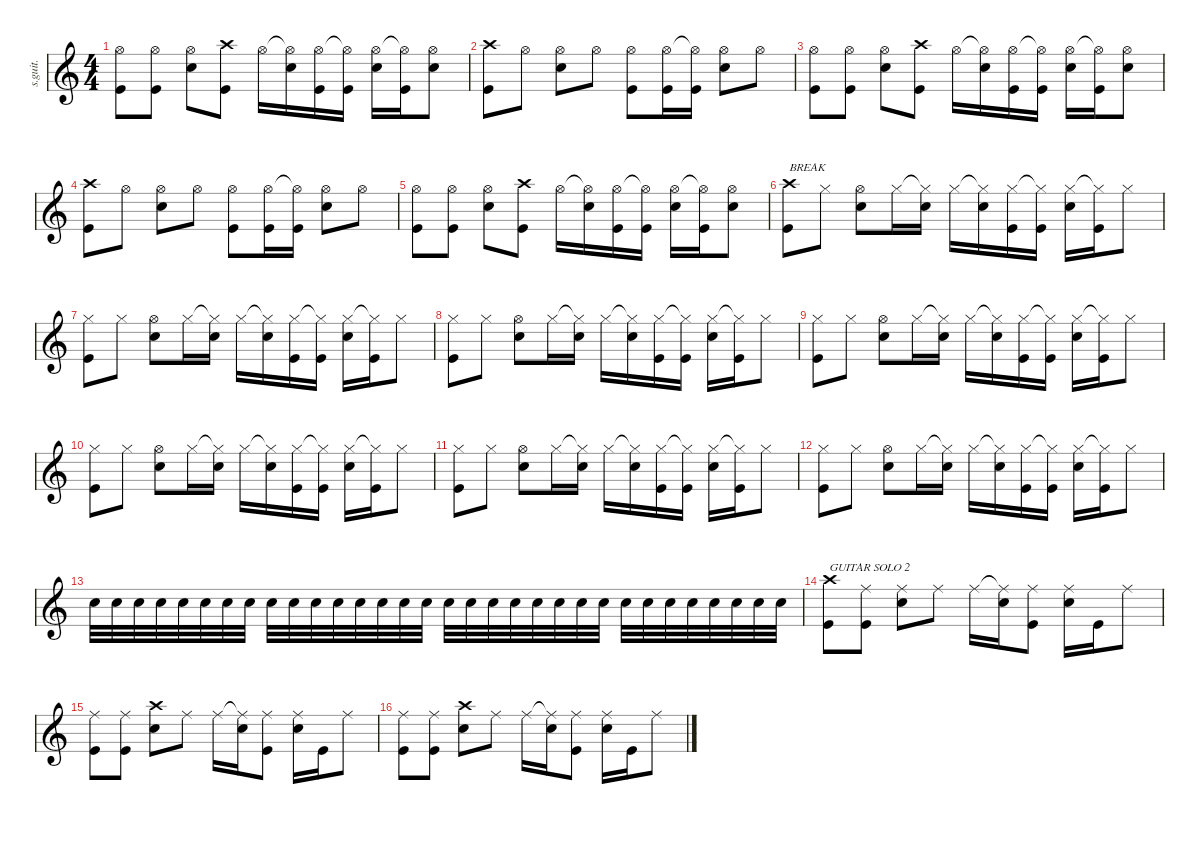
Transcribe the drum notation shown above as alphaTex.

\defaultSystemsLayout 4
\hideDynamics
\bracketExtendMode nobrackets
\track ("Phil Selway" "s.guit.") {instrument percussion}
\staff {score}
\articulation defaults
\ts (4 4)
\tempo (88 hide)
\clef g2
\ks c
("Hi-Hat (open)" "Kick (hit)").8{lyrics (0 "") lyrics (1 "") lyrics (2 "") lyrics (3 "") lyrics (4 "") dy f} ("Hi-Hat (open)" "Kick (hit)").8{lyrics (0 "") lyrics (1 "") lyrics (2 "") lyrics (3 "") lyrics (4 "")} ("Hi-Hat (open)" "Snare (hit) 2").8{lyrics (0 "") lyrics (1 "") lyrics (2 "") lyrics (3 "") lyrics (4 "")} ("Crash high (hit)" "Kick (hit)").8{lyrics (0 "") lyrics (1 "") lyrics (2 "") lyrics (3 "") lyrics (4 "")} "Hi-Hat (open)".16{lyrics (0 "") lyrics (1 "") lyrics (2 "") lyrics (3 "") lyrics (4 "")} ("Hi-Hat (open)"{t} "Snare (hit) 2").16{lyrics (0 "") lyrics (1 "") lyrics (2 "") lyrics (3 "") lyrics (4 "")} ("Hi-Hat (open)" "Kick (hit)").16{lyrics (0 "") lyrics (1 "") lyrics (2 "") lyrics (3 "") lyrics (4 "")} ("Hi-Hat (open)"{t} "Kick (hit)").16{lyrics (0 "") lyrics (1 "") lyrics (2 "") lyrics (3 "") lyrics (4 "")} ("Hi-Hat (open)" "Snare (hit) 2").16{lyrics (0 "") lyrics (1 "") lyrics (2 "") lyrics (3 "") lyrics (4 "")} ("Hi-Hat (open)"{t} "Kick (hit)").16{lyrics (0 "") lyrics (1 "") lyrics (2 "") lyrics (3 "") lyrics (4 "")} ("Hi-Hat (open)" "Snare (hit) 2").8{lyrics (0 "") lyrics (1 "") lyrics (2 "") lyrics (3 "") lyrics (4 "")} |
("Crash high (hit)" "Kick (hit)").8{lyrics (0 "") lyrics (1 "") lyrics (2 "") lyrics (3 "") lyrics (4 "")} "Hi-Hat (open)".8{lyrics (0 "") lyrics (1 "") lyrics (2 "") lyrics (3 "") lyrics (4 "")} ("Hi-Hat (open)" "Snare (hit) 2").8{lyrics (0 "") lyrics (1 "") lyrics (2 "") lyrics (3 "") lyrics (4 "")} "Hi-Hat (open)".8{lyrics (0 "") lyrics (1 "") lyrics (2 "") lyrics (3 "") lyrics (4 "")} ("Hi-Hat (open)" "Kick (hit)").8{lyrics (0 "") lyrics (1 "") lyrics (2 "") lyrics (3 "") lyrics (4 "")} ("Hi-Hat (open)" "Kick (hit)").16{lyrics (0 "") lyrics (1 "") lyrics (2 "") lyrics (3 "") lyrics (4 "")} ("Hi-Hat (open)"{t} "Kick (hit)").16{lyrics (0 "") lyrics (1 "") lyrics (2 "") lyrics (3 "") lyrics (4 "")} ("Hi-Hat (open)" "Snare (hit) 2").8{lyrics (0 "") lyrics (1 "") lyrics (2 "") lyrics (3 "") lyrics (4 "")} "Hi-Hat (open)".8{lyrics (0 "") lyrics (1 "") lyrics (2 "") lyrics (3 "") lyrics (4 "")} |
("Hi-Hat (open)" "Kick (hit)").8{lyrics (0 "") lyrics (1 "") lyrics (2 "") lyrics (3 "") lyrics (4 "")} ("Hi-Hat (open)" "Kick (hit)").8{lyrics (0 "") lyrics (1 "") lyrics (2 "") lyrics (3 "") lyrics (4 "")} ("Hi-Hat (open)" "Snare (hit) 2").8{lyrics (0 "") lyrics (1 "") lyrics (2 "") lyrics (3 "") lyrics (4 "")} ("Crash high (hit)" "Kick (hit)").8{lyrics (0 "") lyrics (1 "") lyrics (2 "") lyrics (3 "") lyrics (4 "")} "Hi-Hat (open)".16{lyrics (0 "") lyrics (1 "") lyrics (2 "") lyrics (3 "") lyrics (4 "")} ("Hi-Hat (open)"{t} "Snare (hit) 2").16{lyrics (0 "") lyrics (1 "") lyrics (2 "") lyrics (3 "") lyrics (4 "")} ("Hi-Hat (open)" "Kick (hit)").16{lyrics (0 "") lyrics (1 "") lyrics (2 "") lyrics (3 "") lyrics (4 "")} ("Hi-Hat (open)"{t} "Kick (hit)").16{lyrics (0 "") lyrics (1 "") lyrics (2 "") lyrics (3 "") lyrics (4 "")} ("Hi-Hat (open)" "Snare (hit) 2").16{lyrics (0 "") lyrics (1 "") lyrics (2 "") lyrics (3 "") lyrics (4 "")} ("Hi-Hat (open)"{t} "Kick (hit)").16{lyrics (0 "") lyrics (1 "") lyrics (2 "") lyrics (3 "") lyrics (4 "")} ("Hi-Hat (open)" "Snare (hit) 2").8{lyrics (0 "") lyrics (1 "") lyrics (2 "") lyrics (3 "") lyrics (4 "")} |
("Crash high (hit)" "Kick (hit)").8{lyrics (0 "") lyrics (1 "") lyrics (2 "") lyrics (3 "") lyrics (4 "")} "Hi-Hat (open)".8{lyrics (0 "") lyrics (1 "") lyrics (2 "") lyrics (3 "") lyrics (4 "")} ("Hi-Hat (open)" "Snare (hit) 2").8{lyrics (0 "") lyrics (1 "") lyrics (2 "") lyrics (3 "") lyrics (4 "")} "Hi-Hat (open)".8{lyrics (0 "") lyrics (1 "") lyrics (2 "") lyrics (3 "") lyrics (4 "")} ("Hi-Hat (open)" "Kick (hit)").8{lyrics (0 "") lyrics (1 "") lyrics (2 "") lyrics (3 "") lyrics (4 "")} ("Hi-Hat (open)" "Kick (hit)").16{lyrics (0 "") lyrics (1 "") lyrics (2 "") lyrics (3 "") lyrics (4 "")} ("Hi-Hat (open)"{t} "Kick (hit)").16{lyrics (0 "") lyrics (1 "") lyrics (2 "") lyrics (3 "") lyrics (4 "")} ("Hi-Hat (open)" "Snare (hit) 2").8{lyrics (0 "") lyrics (1 "") lyrics (2 "") lyrics (3 "") lyrics (4 "")} "Hi-Hat (open)".8{lyrics (0 "") lyrics (1 "") lyrics (2 "") lyrics (3 "") lyrics (4 "")} |
("Hi-Hat (open)" "Kick (hit)").8{lyrics (0 "") lyrics (1 "") lyrics (2 "") lyrics (3 "") lyrics (4 "")} ("Hi-Hat (open)" "Kick (hit)").8{lyrics (0 "") lyrics (1 "") lyrics (2 "") lyrics (3 "") lyrics (4 "")} ("Hi-Hat (open)" "Snare (hit) 2").8{lyrics (0 "") lyrics (1 "") lyrics (2 "") lyrics (3 "") lyrics (4 "")} ("Crash high (hit)" "Kick (hit)").8{lyrics (0 "") lyrics (1 "") lyrics (2 "") lyrics (3 "") lyrics (4 "")} "Hi-Hat (open)".16{lyrics (0 "") lyrics (1 "") lyrics (2 "") lyrics (3 "") lyrics (4 "")} ("Hi-Hat (open)"{t} "Snare (hit) 2").16{lyrics (0 "") lyrics (1 "") lyrics (2 "") lyrics (3 "") lyrics (4 "")} ("Hi-Hat (open)" "Kick (hit)").16{lyrics (0 "") lyrics (1 "") lyrics (2 "") lyrics (3 "") lyrics (4 "")} ("Hi-Hat (open)"{t} "Kick (hit)").16{lyrics (0 "") lyrics (1 "") lyrics (2 "") lyrics (3 "") lyrics (4 "")} ("Hi-Hat (open)" "Snare (hit) 2").16{lyrics (0 "") lyrics (1 "") lyrics (2 "") lyrics (3 "") lyrics (4 "")} ("Hi-Hat (open)"{t} "Kick (hit)").16{lyrics (0 "") lyrics (1 "") lyrics (2 "") lyrics (3 "") lyrics (4 "")} ("Hi-Hat (open)" "Snare (hit) 2").8{lyrics (0 "") lyrics (1 "") lyrics (2 "") lyrics (3 "") lyrics (4 "")} |
("Crash high (hit)" "Kick (hit)").8{txt "BREAK" lyrics (0 "") lyrics (1 "") lyrics (2 "") lyrics (3 "") lyrics (4 "")} "Hi-Hat (closed)".8{lyrics (0 "") lyrics (1 "") lyrics (2 "") lyrics (3 "") lyrics (4 "")} ("Hi-Hat (open)" "Snare (hit) 2").8{lyrics (0 "") lyrics (1 "") lyrics (2 "") lyrics (3 "") lyrics (4 "")} "Hi-Hat (closed)".16{lyrics (0 "") lyrics (1 "") lyrics (2 "") lyrics (3 "") lyrics (4 "")} ("Hi-Hat (closed)"{t} "Snare (hit) 2").16{lyrics (0 "") lyrics (1 "") lyrics (2 "") lyrics (3 "") lyrics (4 "")} "Hi-Hat (closed)".16{lyrics (0 "") lyrics (1 "") lyrics (2 "") lyrics (3 "") lyrics (4 "")} ("Hi-Hat (closed)"{t} "Snare (hit) 2").16{lyrics (0 "") lyrics (1 "") lyrics (2 "") lyrics (3 "") lyrics (4 "")} ("Hi-Hat (closed)" "Kick (hit)").16{lyrics (0 "") lyrics (1 "") lyrics (2 "") lyrics (3 "") lyrics (4 "")} ("Hi-Hat (closed)"{t} "Kick (hit)").16{lyrics (0 "") lyrics (1 "") lyrics (2 "") lyrics (3 "") lyrics (4 "")} ("Hi-Hat (closed)" "Snare (hit) 2").16{lyrics (0 "") lyrics (1 "") lyrics (2 "") lyrics (3 "") lyrics (4 "")} ("Hi-Hat (closed)"{t} "Kick (hit)").16{lyrics (0 "") lyrics (1 "") lyrics (2 "") lyrics (3 "") lyrics (4 "")} "Hi-Hat (closed)".8{lyrics (0 "") lyrics (1 "") lyrics (2 "") lyrics (3 "") lyrics (4 "")} |
("Hi-Hat (closed)" "Kick (hit)").8{lyrics (0 "") lyrics (1 "") lyrics (2 "") lyrics (3 "") lyrics (4 "")} "Hi-Hat (closed)".8{lyrics (0 "") lyrics (1 "") lyrics (2 "") lyrics (3 "") lyrics (4 "")} ("Hi-Hat (open)" "Snare (hit) 2").8{lyrics (0 "") lyrics (1 "") lyrics (2 "") lyrics (3 "") lyrics (4 "")} "Hi-Hat (closed)".16{lyrics (0 "") lyrics (1 "") lyrics (2 "") lyrics (3 "") lyrics (4 "")} ("Hi-Hat (closed)"{t} "Snare (hit) 2").16{lyrics (0 "") lyrics (1 "") lyrics (2 "") lyrics (3 "") lyrics (4 "")} "Hi-Hat (closed)".16{lyrics (0 "") lyrics (1 "") lyrics (2 "") lyrics (3 "") lyrics (4 "")} ("Hi-Hat (closed)"{t} "Snare (hit) 2").16{lyrics (0 "") lyrics (1 "") lyrics (2 "") lyrics (3 "") lyrics (4 "")} ("Hi-Hat (closed)" "Kick (hit)").16{lyrics (0 "") lyrics (1 "") lyrics (2 "") lyrics (3 "") lyrics (4 "")} ("Hi-Hat (closed)"{t} "Kick (hit)").16{lyrics (0 "") lyrics (1 "") lyrics (2 "") lyrics (3 "") lyrics (4 "")} ("Hi-Hat (closed)" "Snare (hit) 2").16{lyrics (0 "") lyrics (1 "") lyrics (2 "") lyrics (3 "") lyrics (4 "")} ("Hi-Hat (closed)"{t} "Kick (hit)").16{lyrics (0 "") lyrics (1 "") lyrics (2 "") lyrics (3 "") lyrics (4 "")} "Hi-Hat (closed)".8{lyrics (0 "") lyrics (1 "") lyrics (2 "") lyrics (3 "") lyrics (4 "")} |
("Hi-Hat (closed)" "Kick (hit)").8{lyrics (0 "") lyrics (1 "") lyrics (2 "") lyrics (3 "") lyrics (4 "")} "Hi-Hat (closed)".8{lyrics (0 "") lyrics (1 "") lyrics (2 "") lyrics (3 "") lyrics (4 "")} ("Hi-Hat (open)" "Snare (hit) 2").8{lyrics (0 "") lyrics (1 "") lyrics (2 "") lyrics (3 "") lyrics (4 "")} "Hi-Hat (closed)".16{lyrics (0 "") lyrics (1 "") lyrics (2 "") lyrics (3 "") lyrics (4 "")} ("Hi-Hat (closed)"{t} "Snare (hit) 2").16{lyrics (0 "") lyrics (1 "") lyrics (2 "") lyrics (3 "") lyrics (4 "")} "Hi-Hat (closed)".16{lyrics (0 "") lyrics (1 "") lyrics (2 "") lyrics (3 "") lyrics (4 "")} ("Hi-Hat (closed)"{t} "Snare (hit) 2").16{lyrics (0 "") lyrics (1 "") lyrics (2 "") lyrics (3 "") lyrics (4 "")} ("Hi-Hat (closed)" "Kick (hit)").16{lyrics (0 "") lyrics (1 "") lyrics (2 "") lyrics (3 "") lyrics (4 "")} ("Hi-Hat (closed)"{t} "Kick (hit)").16{lyrics (0 "") lyrics (1 "") lyrics (2 "") lyrics (3 "") lyrics (4 "")} ("Hi-Hat (closed)" "Snare (hit) 2").16{lyrics (0 "") lyrics (1 "") lyrics (2 "") lyrics (3 "") lyrics (4 "")} ("Hi-Hat (closed)"{t} "Kick (hit)").16{lyrics (0 "") lyrics (1 "") lyrics (2 "") lyrics (3 "") lyrics (4 "")} "Hi-Hat (closed)".8{lyrics (0 "") lyrics (1 "") lyrics (2 "") lyrics (3 "") lyrics (4 "")} |
("Hi-Hat (closed)" "Kick (hit)").8{lyrics (0 "") lyrics (1 "") lyrics (2 "") lyrics (3 "") lyrics (4 "")} "Hi-Hat (closed)".8{lyrics (0 "") lyrics (1 "") lyrics (2 "") lyrics (3 "") lyrics (4 "")} ("Hi-Hat (open)" "Snare (hit) 2").8{lyrics (0 "") lyrics (1 "") lyrics (2 "") lyrics (3 "") lyrics (4 "")} "Hi-Hat (closed)".16{lyrics (0 "") lyrics (1 "") lyrics (2 "") lyrics (3 "") lyrics (4 "")} ("Hi-Hat (closed)"{t} "Snare (hit) 2").16{lyrics (0 "") lyrics (1 "") lyrics (2 "") lyrics (3 "") lyrics (4 "")} "Hi-Hat (closed)".16{lyrics (0 "") lyrics (1 "") lyrics (2 "") lyrics (3 "") lyrics (4 "")} ("Hi-Hat (closed)"{t} "Snare (hit) 2").16{lyrics (0 "") lyrics (1 "") lyrics (2 "") lyrics (3 "") lyrics (4 "")} ("Hi-Hat (closed)" "Kick (hit)").16{lyrics (0 "") lyrics (1 "") lyrics (2 "") lyrics (3 "") lyrics (4 "")} ("Hi-Hat (closed)"{t} "Kick (hit)").16{lyrics (0 "") lyrics (1 "") lyrics (2 "") lyrics (3 "") lyrics (4 "")} ("Hi-Hat (closed)" "Snare (hit) 2").16{lyrics (0 "") lyrics (1 "") lyrics (2 "") lyrics (3 "") lyrics (4 "")} ("Hi-Hat (closed)"{t} "Kick (hit)").16{lyrics (0 "") lyrics (1 "") lyrics (2 "") lyrics (3 "") lyrics (4 "")} "Hi-Hat (closed)".8{lyrics (0 "") lyrics (1 "") lyrics (2 "") lyrics (3 "") lyrics (4 "")} |
("Hi-Hat (closed)" "Kick (hit)").8{lyrics (0 "") lyrics (1 "") lyrics (2 "") lyrics (3 "") lyrics (4 "")} "Hi-Hat (closed)".8{lyrics (0 "") lyrics (1 "") lyrics (2 "") lyrics (3 "") lyrics (4 "")} ("Hi-Hat (open)" "Snare (hit) 2").8{lyrics (0 "") lyrics (1 "") lyrics (2 "") lyrics (3 "") lyrics (4 "")} "Hi-Hat (closed)".16{lyrics (0 "") lyrics (1 "") lyrics (2 "") lyrics (3 "") lyrics (4 "")} ("Hi-Hat (closed)"{t} "Snare (hit) 2").16{lyrics (0 "") lyrics (1 "") lyrics (2 "") lyrics (3 "") lyrics (4 "")} "Hi-Hat (closed)".16{lyrics (0 "") lyrics (1 "") lyrics (2 "") lyrics (3 "") lyrics (4 "")} ("Hi-Hat (closed)"{t} "Snare (hit) 2").16{lyrics (0 "") lyrics (1 "") lyrics (2 "") lyrics (3 "") lyrics (4 "")} ("Hi-Hat (closed)" "Kick (hit)").16{lyrics (0 "") lyrics (1 "") lyrics (2 "") lyrics (3 "") lyrics (4 "")} ("Hi-Hat (closed)"{t} "Kick (hit)").16{lyrics (0 "") lyrics (1 "") lyrics (2 "") lyrics (3 "") lyrics (4 "")} ("Hi-Hat (closed)" "Snare (hit) 2").16{lyrics (0 "") lyrics (1 "") lyrics (2 "") lyrics (3 "") lyrics (4 "")} ("Hi-Hat (closed)"{t} "Kick (hit)").16{lyrics (0 "") lyrics (1 "") lyrics (2 "") lyrics (3 "") lyrics (4 "")} "Hi-Hat (closed)".8{lyrics (0 "") lyrics (1 "") lyrics (2 "") lyrics (3 "") lyrics (4 "")} |
("Hi-Hat (closed)" "Kick (hit)").8{lyrics (0 "") lyrics (1 "") lyrics (2 "") lyrics (3 "") lyrics (4 "")} "Hi-Hat (closed)".8{lyrics (0 "") lyrics (1 "") lyrics (2 "") lyrics (3 "") lyrics (4 "")} ("Hi-Hat (open)" "Snare (hit) 2").8{lyrics (0 "") lyrics (1 "") lyrics (2 "") lyrics (3 "") lyrics (4 "")} "Hi-Hat (closed)".16{lyrics (0 "") lyrics (1 "") lyrics (2 "") lyrics (3 "") lyrics (4 "")} ("Hi-Hat (closed)"{t} "Snare (hit) 2").16{lyrics (0 "") lyrics (1 "") lyrics (2 "") lyrics (3 "") lyrics (4 "")} "Hi-Hat (closed)".16{lyrics (0 "") lyrics (1 "") lyrics (2 "") lyrics (3 "") lyrics (4 "")} ("Hi-Hat (closed)"{t} "Snare (hit) 2").16{lyrics (0 "") lyrics (1 "") lyrics (2 "") lyrics (3 "") lyrics (4 "")} ("Hi-Hat (closed)" "Kick (hit)").16{lyrics (0 "") lyrics (1 "") lyrics (2 "") lyrics (3 "") lyrics (4 "")} ("Hi-Hat (closed)"{t} "Kick (hit)").16{lyrics (0 "") lyrics (1 "") lyrics (2 "") lyrics (3 "") lyrics (4 "")} ("Hi-Hat (closed)" "Snare (hit) 2").16{lyrics (0 "") lyrics (1 "") lyrics (2 "") lyrics (3 "") lyrics (4 "")} ("Hi-Hat (closed)"{t} "Kick (hit)").16{lyrics (0 "") lyrics (1 "") lyrics (2 "") lyrics (3 "") lyrics (4 "")} "Hi-Hat (closed)".8{lyrics (0 "") lyrics (1 "") lyrics (2 "") lyrics (3 "") lyrics (4 "")} |
("Hi-Hat (closed)" "Kick (hit)").8{lyrics (0 "") lyrics (1 "") lyrics (2 "") lyrics (3 "") lyrics (4 "")} "Hi-Hat (closed)".8{lyrics (0 "") lyrics (1 "") lyrics (2 "") lyrics (3 "") lyrics (4 "")} ("Hi-Hat (open)" "Snare (hit) 2").8{lyrics (0 "") lyrics (1 "") lyrics (2 "") lyrics (3 "") lyrics (4 "")} "Hi-Hat (closed)".16{lyrics (0 "") lyrics (1 "") lyrics (2 "") lyrics (3 "") lyrics (4 "")} ("Hi-Hat (closed)"{t} "Snare (hit) 2").16{lyrics (0 "") lyrics (1 "") lyrics (2 "") lyrics (3 "") lyrics (4 "")} "Hi-Hat (closed)".16{lyrics (0 "") lyrics (1 "") lyrics (2 "") lyrics (3 "") lyrics (4 "")} ("Hi-Hat (closed)"{t} "Snare (hit) 2").16{lyrics (0 "") lyrics (1 "") lyrics (2 "") lyrics (3 "") lyrics (4 "")} ("Hi-Hat (closed)" "Kick (hit)").16{lyrics (0 "") lyrics (1 "") lyrics (2 "") lyrics (3 "") lyrics (4 "")} ("Hi-Hat (closed)"{t} "Kick (hit)").16{lyrics (0 "") lyrics (1 "") lyrics (2 "") lyrics (3 "") lyrics (4 "")} ("Hi-Hat (closed)" "Snare (hit) 2").16{lyrics (0 "") lyrics (1 "") lyrics (2 "") lyrics (3 "") lyrics (4 "")} ("Hi-Hat (closed)"{t} "Kick (hit)").16{lyrics (0 "") lyrics (1 "") lyrics (2 "") lyrics (3 "") lyrics (4 "")} "Hi-Hat (closed)".8{lyrics (0 "") lyrics (1 "") lyrics (2 "") lyrics (3 "") lyrics (4 "")} |
"Snare (hit) 2".32{lyrics (0 "") lyrics (1 "") lyrics (2 "") lyrics (3 "") lyrics (4 "")} "Snare (hit) 2".32{lyrics (0 "") lyrics (1 "") lyrics (2 "") lyrics (3 "") lyrics (4 "")} "Snare (hit) 2".32{lyrics (0 "") lyrics (1 "") lyrics (2 "") lyrics (3 "") lyrics (4 "")} "Snare (hit) 2".32{lyrics (0 "") lyrics (1 "") lyrics (2 "") lyrics (3 "") lyrics (4 "")} "Snare (hit) 2".32{lyrics (0 "") lyrics (1 "") lyrics (2 "") lyrics (3 "") lyrics (4 "")} "Snare (hit) 2".32{lyrics (0 "") lyrics (1 "") lyrics (2 "") lyrics (3 "") lyrics (4 "")} "Snare (hit) 2".32{lyrics (0 "") lyrics (1 "") lyrics (2 "") lyrics (3 "") lyrics (4 "")} "Snare (hit) 2".32{lyrics (0 "") lyrics (1 "") lyrics (2 "") lyrics (3 "") lyrics (4 "")} "Snare (hit) 2".32{lyrics (0 "") lyrics (1 "") lyrics (2 "") lyrics (3 "") lyrics (4 "")} "Snare (hit) 2".32{lyrics (0 "") lyrics (1 "") lyrics (2 "") lyrics (3 "") lyrics (4 "")} "Snare (hit) 2".32{lyrics (0 "") lyrics (1 "") lyrics (2 "") lyrics (3 "") lyrics (4 "")} "Snare (hit) 2".32{lyrics (0 "") lyrics (1 "") lyrics (2 "") lyrics (3 "") lyrics (4 "")} "Snare (hit) 2".32{lyrics (0 "") lyrics (1 "") lyrics (2 "") lyrics (3 "") lyrics (4 "")} "Snare (hit) 2".32{lyrics (0 "") lyrics (1 "") lyrics (2 "") lyrics (3 "") lyrics (4 "")} "Snare (hit) 2".32{lyrics (0 "") lyrics (1 "") lyrics (2 "") lyrics (3 "") lyrics (4 "")} "Snare (hit) 2".32{lyrics (0 "") lyrics (1 "") lyrics (2 "") lyrics (3 "") lyrics (4 "")} "Snare (hit) 2".32{lyrics (0 "") lyrics (1 "") lyrics (2 "") lyrics (3 "") lyrics (4 "")} "Snare (hit) 2".32{lyrics (0 "") lyrics (1 "") lyrics (2 "") lyrics (3 "") lyrics (4 "")} "Snare (hit) 2".32{lyrics (0 "") lyrics (1 "") lyrics (2 "") lyrics (3 "") lyrics (4 "")} "Snare (hit) 2".32{lyrics (0 "") lyrics (1 "") lyrics (2 "") lyrics (3 "") lyrics (4 "")} "Snare (hit) 2".32{lyrics (0 "") lyrics (1 "") lyrics (2 "") lyrics (3 "") lyrics (4 "")} "Snare (hit) 2".32{lyrics (0 "") lyrics (1 "") lyrics (2 "") lyrics (3 "") lyrics (4 "")} "Snare (hit) 2".32{lyrics (0 "") lyrics (1 "") lyrics (2 "") lyrics (3 "") lyrics (4 "")} "Snare (hit) 2".32{lyrics (0 "") lyrics (1 "") lyrics (2 "") lyrics (3 "") lyrics (4 "")} "Snare (hit) 2".32{lyrics (0 "") lyrics (1 "") lyrics (2 "") lyrics (3 "") lyrics (4 "")} "Snare (hit) 2".32{lyrics (0 "") lyrics (1 "") lyrics (2 "") lyrics (3 "") lyrics (4 "")} "Snare (hit) 2".32{lyrics (0 "") lyrics (1 "") lyrics (2 "") lyrics (3 "") lyrics (4 "")} "Snare (hit) 2".32{lyrics (0 "") lyrics (1 "") lyrics (2 "") lyrics (3 "") lyrics (4 "")} "Snare (hit) 2".32{lyrics (0 "") lyrics (1 "") lyrics (2 "") lyrics (3 "") lyrics (4 "")} "Snare (hit) 2".32{lyrics (0 "") lyrics (1 "") lyrics (2 "") lyrics (3 "") lyrics (4 "")} "Snare (hit) 2".32{lyrics (0 "") lyrics (1 "") lyrics (2 "") lyrics (3 "") lyrics (4 "")} "Snare (hit) 2".32{lyrics (0 "") lyrics (1 "") lyrics (2 "") lyrics (3 "") lyrics (4 "")} |
("Crash high (hit)" "Kick (hit)").8{txt "GUITAR SOLO 2" lyrics (0 "") lyrics (1 "") lyrics (2 "") lyrics (3 "") lyrics (4 "")} ("Ride (middle)" "Kick (hit)").8{lyrics (0 "") lyrics (1 "") lyrics (2 "") lyrics (3 "") lyrics (4 "")} ("Ride (middle)" "Snare (hit) 2").8{lyrics (0 "") lyrics (1 "") lyrics (2 "") lyrics (3 "") lyrics (4 "")} "Ride (middle)".8{lyrics (0 "") lyrics (1 "") lyrics (2 "") lyrics (3 "") lyrics (4 "")} "Ride (middle)".16{lyrics (0 "") lyrics (1 "") lyrics (2 "") lyrics (3 "") lyrics (4 "")} ("Ride (middle)"{t} "Snare (hit) 2").16{lyrics (0 "") lyrics (1 "") lyrics (2 "") lyrics (3 "") lyrics (4 "")} ("Ride (middle)" "Kick (hit)").8{lyrics (0 "") lyrics (1 "") lyrics (2 "") lyrics (3 "") lyrics (4 "")} ("Ride (middle)" "Snare (hit) 2").16{lyrics (0 "") lyrics (1 "") lyrics (2 "") lyrics (3 "") lyrics (4 "")} "Kick (hit)".16{lyrics (0 "") lyrics (1 "") lyrics (2 "") lyrics (3 "") lyrics (4 "") dy fff} "Ride (middle)".8{lyrics (0 "") lyrics (1 "") lyrics (2 "") lyrics (3 "") lyrics (4 "") dy f} |
("Ride (middle)" "Kick (hit)").8{lyrics (0 "") lyrics (1 "") lyrics (2 "") lyrics (3 "") lyrics (4 "")} ("Ride (middle)" "Kick (hit)").8{lyrics (0 "") lyrics (1 "") lyrics (2 "") lyrics (3 "") lyrics (4 "")} ("Crash high (hit)" "Snare (hit) 2").8{lyrics (0 "") lyrics (1 "") lyrics (2 "") lyrics (3 "") lyrics (4 "")} "Ride (middle)".8{lyrics (0 "") lyrics (1 "") lyrics (2 "") lyrics (3 "") lyrics (4 "")} "Ride (middle)".16{lyrics (0 "") lyrics (1 "") lyrics (2 "") lyrics (3 "") lyrics (4 "")} ("Ride (middle)"{t} "Snare (hit) 2").16{lyrics (0 "") lyrics (1 "") lyrics (2 "") lyrics (3 "") lyrics (4 "")} ("Ride (middle)" "Kick (hit)").8{lyrics (0 "") lyrics (1 "") lyrics (2 "") lyrics (3 "") lyrics (4 "")} ("Ride (middle)" "Snare (hit) 2").16{lyrics (0 "") lyrics (1 "") lyrics (2 "") lyrics (3 "") lyrics (4 "")} "Kick (hit)".16{lyrics (0 "") lyrics (1 "") lyrics (2 "") lyrics (3 "") lyrics (4 "") dy fff} "Ride (middle)".8{lyrics (0 "") lyrics (1 "") lyrics (2 "") lyrics (3 "") lyrics (4 "") dy f} |
("Ride (middle)" "Kick (hit)").8{lyrics (0 "") lyrics (1 "") lyrics (2 "") lyrics (3 "") lyrics (4 "")} ("Ride (middle)" "Kick (hit)").8{lyrics (0 "") lyrics (1 "") lyrics (2 "") lyrics (3 "") lyrics (4 "")} ("Crash high (hit)" "Snare (hit) 2").8{lyrics (0 "") lyrics (1 "") lyrics (2 "") lyrics (3 "") lyrics (4 "")} "Ride (middle)".8{lyrics (0 "") lyrics (1 "") lyrics (2 "") lyrics (3 "") lyrics (4 "")} "Ride (middle)".16{lyrics (0 "") lyrics (1 "") lyrics (2 "") lyrics (3 "") lyrics (4 "")} ("Ride (middle)"{t} "Snare (hit) 2").16{lyrics (0 "") lyrics (1 "") lyrics (2 "") lyrics (3 "") lyrics (4 "")} ("Ride (middle)" "Kick (hit)").8{lyrics (0 "") lyrics (1 "") lyrics (2 "") lyrics (3 "") lyrics (4 "")} ("Ride (middle)" "Snare (hit) 2").16{lyrics (0 "") lyrics (1 "") lyrics (2 "") lyrics (3 "") lyrics (4 "")} "Kick (hit)".16{lyrics (0 "") lyrics (1 "") lyrics (2 "") lyrics (3 "") lyrics (4 "") dy fff} "Ride (middle)".8{lyrics (0 "") lyrics (1 "") lyrics (2 "") lyrics (3 "") lyrics (4 "") dy f}
